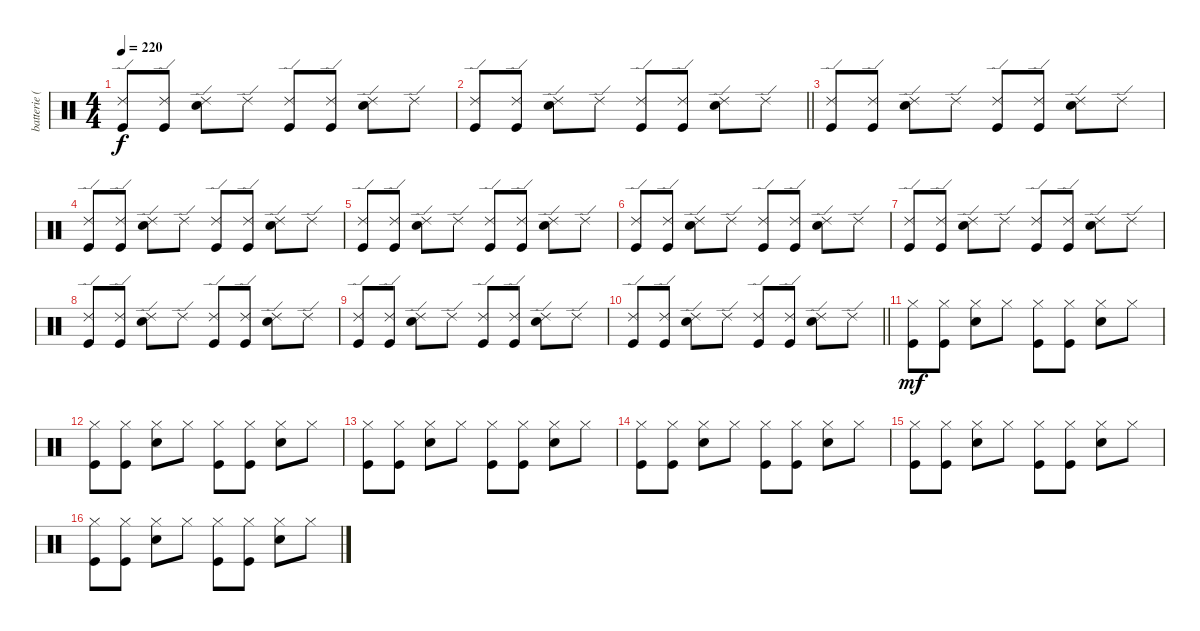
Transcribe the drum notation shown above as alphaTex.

\track ("batterie ( Guillaume ) " "batterie (") {instrument percussion}
\staff {score}
\articulation defaults
\ts (4 4)
\tempo 220
\clef neutral
\ks c
("Ride (edge) 2" "Kick (hit)").8{dy f} ("Ride (edge) 2" "Kick (hit)").8 ("Ride (edge) 2" "Snare (hit) 2").8 "Ride (edge) 2".8 ("Ride (edge) 2" "Kick (hit)").8 ("Ride (edge) 2" "Kick (hit)").8 ("Ride (edge) 2" "Snare (hit) 2").8 "Ride (edge) 2".8 |
\barLineRight lightlight
("Ride (edge) 2" "Kick (hit)").8 ("Ride (edge) 2" "Kick (hit)").8 ("Ride (edge) 2" "Snare (hit) 2").8 "Ride (edge) 2".8 ("Ride (edge) 2" "Kick (hit)").8 ("Ride (edge) 2" "Kick (hit)").8 ("Ride (edge) 2" "Snare (hit) 2").8 "Ride (edge) 2".8 |
("Ride (edge) 2" "Kick (hit)").8 ("Ride (edge) 2" "Kick (hit)").8 ("Ride (edge) 2" "Snare (hit) 2").8 "Ride (edge) 2".8 ("Ride (edge) 2" "Kick (hit)").8 ("Ride (edge) 2" "Kick (hit)").8 ("Ride (edge) 2" "Snare (hit) 2").8 "Ride (edge) 2".8 |
("Ride (edge) 2" "Kick (hit)").8 ("Ride (edge) 2" "Kick (hit)").8 ("Ride (edge) 2" "Snare (hit) 2").8 "Ride (edge) 2".8 ("Ride (edge) 2" "Kick (hit)").8 ("Ride (edge) 2" "Kick (hit)").8 ("Ride (edge) 2" "Snare (hit) 2").8 "Ride (edge) 2".8 |
("Ride (edge) 2" "Kick (hit)").8 ("Ride (edge) 2" "Kick (hit)").8 ("Ride (edge) 2" "Snare (hit) 2").8 "Ride (edge) 2".8 ("Ride (edge) 2" "Kick (hit)").8 ("Ride (edge) 2" "Kick (hit)").8 ("Ride (edge) 2" "Snare (hit) 2").8 "Ride (edge) 2".8 |
("Ride (edge) 2" "Kick (hit)").8 ("Ride (edge) 2" "Kick (hit)").8 ("Ride (edge) 2" "Snare (hit) 2").8 "Ride (edge) 2".8 ("Ride (edge) 2" "Kick (hit)").8 ("Ride (edge) 2" "Kick (hit)").8 ("Ride (edge) 2" "Snare (hit) 2").8 "Ride (edge) 2".8 |
("Ride (edge) 2" "Kick (hit)").8 ("Ride (edge) 2" "Kick (hit)").8 ("Ride (edge) 2" "Snare (hit) 2").8 "Ride (edge) 2".8 ("Ride (edge) 2" "Kick (hit)").8 ("Ride (edge) 2" "Kick (hit)").8 ("Ride (edge) 2" "Snare (hit) 2").8 "Ride (edge) 2".8 |
("Ride (edge) 2" "Kick (hit)").8 ("Ride (edge) 2" "Kick (hit)").8 ("Ride (edge) 2" "Snare (hit) 2").8 "Ride (edge) 2".8 ("Ride (edge) 2" "Kick (hit)").8 ("Ride (edge) 2" "Kick (hit)").8 ("Ride (edge) 2" "Snare (hit) 2").8 "Ride (edge) 2".8 |
("Ride (edge) 2" "Kick (hit)").8 ("Ride (edge) 2" "Kick (hit)").8 ("Ride (edge) 2" "Snare (hit) 2").8 "Ride (edge) 2".8 ("Ride (edge) 2" "Kick (hit)").8 ("Ride (edge) 2" "Kick (hit)").8 ("Ride (edge) 2" "Snare (hit) 2").8 "Ride (edge) 2".8 |
\barLineRight lightlight
("Ride (edge) 2" "Kick (hit)").8 ("Ride (edge) 2" "Kick (hit)").8 ("Ride (edge) 2" "Snare (hit) 2").8 "Ride (edge) 2".8 ("Ride (edge) 2" "Kick (hit)").8 ("Ride (edge) 2" "Kick (hit)").8 ("Ride (edge) 2" "Snare (hit) 2").8 "Ride (edge) 2".8 |
("Hi-Hat (closed)" "Kick (hit)").8{dy mf} ("Hi-Hat (closed)" "Kick (hit)").8 ("Hi-Hat (closed)" "Snare (hit) 2").8 "Hi-Hat (closed)".8 ("Hi-Hat (closed)" "Kick (hit)").8 ("Hi-Hat (closed)" "Kick (hit)").8 ("Hi-Hat (closed)" "Snare (hit) 2").8 "Hi-Hat (closed)".8 |
("Hi-Hat (closed)" "Kick (hit)").8 ("Hi-Hat (closed)" "Kick (hit)").8 ("Hi-Hat (closed)" "Snare (hit) 2").8 "Hi-Hat (closed)".8 ("Hi-Hat (closed)" "Kick (hit)").8 ("Hi-Hat (closed)" "Kick (hit)").8 ("Hi-Hat (closed)" "Snare (hit) 2").8 "Hi-Hat (closed)".8 |
("Hi-Hat (closed)" "Kick (hit)").8 ("Hi-Hat (closed)" "Kick (hit)").8 ("Hi-Hat (closed)" "Snare (hit) 2").8 "Hi-Hat (closed)".8 ("Hi-Hat (closed)" "Kick (hit)").8 ("Hi-Hat (closed)" "Kick (hit)").8 ("Hi-Hat (closed)" "Snare (hit) 2").8 "Hi-Hat (closed)".8 |
("Hi-Hat (closed)" "Kick (hit)").8 ("Hi-Hat (closed)" "Kick (hit)").8 ("Hi-Hat (closed)" "Snare (hit) 2").8 "Hi-Hat (closed)".8 ("Hi-Hat (closed)" "Kick (hit)").8 ("Hi-Hat (closed)" "Kick (hit)").8 ("Hi-Hat (closed)" "Snare (hit) 2").8 "Hi-Hat (closed)".8 |
("Hi-Hat (closed)" "Kick (hit)").8 ("Hi-Hat (closed)" "Kick (hit)").8 ("Hi-Hat (closed)" "Snare (hit) 2").8 "Hi-Hat (closed)".8 ("Hi-Hat (closed)" "Kick (hit)").8 ("Hi-Hat (closed)" "Kick (hit)").8 ("Hi-Hat (closed)" "Snare (hit) 2").8 "Hi-Hat (closed)".8 |
("Hi-Hat (closed)" "Kick (hit)").8 ("Hi-Hat (closed)" "Kick (hit)").8 ("Hi-Hat (closed)" "Snare (hit) 2").8 "Hi-Hat (closed)".8 ("Hi-Hat (closed)" "Kick (hit)").8 ("Hi-Hat (closed)" "Kick (hit)").8 ("Hi-Hat (closed)" "Snare (hit) 2").8 "Hi-Hat (closed)".8
